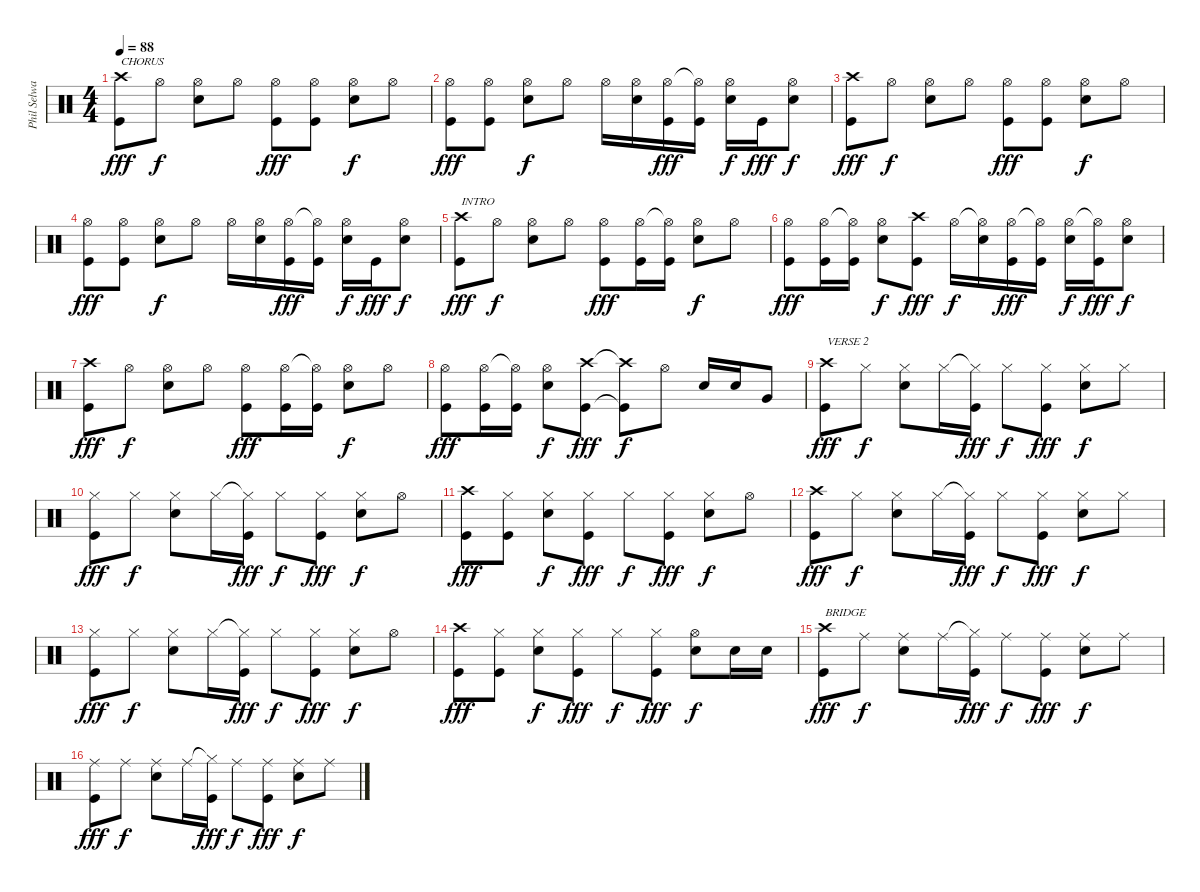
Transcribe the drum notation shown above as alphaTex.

\track ("Phil Selway" "Phil Selwa") {instrument percussion}
\staff {score}
\articulation defaults
\ts (4 4)
\tempo 88
\clef neutral
\ks c
("Crash high (hit)" "Kick (hit)").8{txt "CHORUS" dy fff} "Hi-Hat (open)".8{dy f} ("Hi-Hat (open)" "Snare (hit) 2").8 "Hi-Hat (open)".8 ("Hi-Hat (open)" "Kick (hit)").8{dy fff} ("Hi-Hat (open)" "Kick (hit)").8 ("Hi-Hat (open)" "Snare (hit) 2").8{dy f} "Hi-Hat (open)".8 |
("Hi-Hat (open)" "Kick (hit)").8{dy fff} ("Hi-Hat (open)" "Kick (hit)").8 ("Hi-Hat (open)" "Snare (hit) 2").8{dy f} "Hi-Hat (open)".8 "Hi-Hat (open)".16 ("Hi-Hat (open)" "Snare (hit) 2").16 ("Hi-Hat (open)" "Kick (hit)").16{dy fff} ("Hi-Hat (open)"{t} "Kick (hit)").16 ("Hi-Hat (open)" "Snare (hit) 2").16{dy f} "Kick (hit)".16{dy fff} ("Hi-Hat (open)" "Snare (hit) 2").8{dy f} |
("Crash high (hit)" "Kick (hit)").8{dy fff} "Hi-Hat (open)".8{dy f} ("Hi-Hat (open)" "Snare (hit) 2").8 "Hi-Hat (open)".8 ("Hi-Hat (open)" "Kick (hit)").8{dy fff} ("Hi-Hat (open)" "Kick (hit)").8 ("Hi-Hat (open)" "Snare (hit) 2").8{dy f} "Hi-Hat (open)".8 |
("Hi-Hat (open)" "Kick (hit)").8{dy fff} ("Hi-Hat (open)" "Kick (hit)").8 ("Hi-Hat (open)" "Snare (hit) 2").8{dy f} "Hi-Hat (open)".8 "Hi-Hat (open)".16 ("Hi-Hat (open)" "Snare (hit) 2").16 ("Hi-Hat (open)" "Kick (hit)").16{dy fff} ("Hi-Hat (open)"{t} "Kick (hit)").16 ("Hi-Hat (open)" "Snare (hit) 2").16{dy f} "Kick (hit)".16{dy fff} ("Hi-Hat (open)" "Snare (hit) 2").8{dy f} |
("Crash high (hit)" "Kick (hit)").8{txt "INTRO" dy fff} "Hi-Hat (open)".8{dy f} ("Hi-Hat (open)" "Snare (hit) 2").8 "Hi-Hat (open)".8 ("Hi-Hat (open)" "Kick (hit)").8{dy fff} ("Hi-Hat (open)" "Kick (hit)").16 ("Hi-Hat (open)"{t} "Kick (hit)").16 ("Hi-Hat (open)" "Snare (hit) 2").8{dy f} "Hi-Hat (open)".8 |
("Hi-Hat (open)" "Kick (hit)").8{dy fff} ("Hi-Hat (open)" "Kick (hit)").16 ("Hi-Hat (open)"{t} "Kick (hit)").16 ("Hi-Hat (open)" "Snare (hit) 2").8{dy f} ("Crash high (hit)" "Kick (hit)").8{dy fff} "Hi-Hat (open)".16{dy f} ("Hi-Hat (open)"{t} "Snare (hit) 2").16 ("Hi-Hat (open)" "Kick (hit)").16{dy fff} ("Hi-Hat (open)"{t} "Kick (hit)").16 ("Hi-Hat (open)" "Snare (hit) 2").16{dy f} ("Hi-Hat (open)"{t} "Kick (hit)").16{dy fff} ("Hi-Hat (open)" "Snare (hit) 2").8{dy f} |
("Crash high (hit)" "Kick (hit)").8{dy fff} "Hi-Hat (open)".8{dy f} ("Hi-Hat (open)" "Snare (hit) 2").8 "Hi-Hat (open)".8 ("Hi-Hat (open)" "Kick (hit)").8{dy fff} ("Hi-Hat (open)" "Kick (hit)").16 ("Hi-Hat (open)"{t} "Kick (hit)").16 ("Hi-Hat (open)" "Snare (hit) 2").8{dy f} "Hi-Hat (open)".8 |
("Hi-Hat (open)" "Kick (hit)").8{dy fff} ("Hi-Hat (open)" "Kick (hit)").16 ("Hi-Hat (open)"{t} "Kick (hit)").16 ("Hi-Hat (open)" "Snare (hit) 2").8{dy f} ("Crash high (hit)" "Kick (hit)").8{dy fff} ("Crash high (hit)"{t} "Kick (hit)"{t}).8{dy f} "Hi-Hat (open)".8 "Snare (hit) 2".16 "Snare (hit) 2".16 "Very Low Tom (hit)".8 |
("Crash high (hit)" "Kick (hit)").8{txt "VERSE 2" dy fff} "Hi-Hat (closed)".8{dy f} ("Hi-Hat (closed)" "Snare (hit) 2").8 "Hi-Hat (closed)".16 ("Hi-Hat (closed)"{t} "Kick (hit)").16{dy fff} "Hi-Hat (closed)".8{dy f} ("Hi-Hat (closed)" "Kick (hit)").8{dy fff} ("Hi-Hat (closed)" "Snare (hit) 2").8{dy f} "Hi-Hat (closed)".8 |
("Hi-Hat (closed)" "Kick (hit)").8{dy fff} "Hi-Hat (closed)".8{dy f} ("Hi-Hat (closed)" "Snare (hit) 2").8 "Hi-Hat (closed)".16 ("Hi-Hat (closed)"{t} "Kick (hit)").16{dy fff} "Hi-Hat (closed)".8{dy f} ("Hi-Hat (closed)" "Kick (hit)").8{dy fff} ("Hi-Hat (closed)" "Snare (hit) 2").8{dy f} "Hi-Hat (open)".8 |
("Crash high (hit)" "Kick (hit)").8{dy fff} ("Hi-Hat (closed)" "Kick (hit)").8 ("Hi-Hat (closed)" "Snare (hit) 2").8{dy f} ("Hi-Hat (closed)" "Kick (hit)").8{dy fff} "Hi-Hat (closed)".8{dy f} ("Hi-Hat (closed)" "Kick (hit)").8{dy fff} ("Hi-Hat (closed)" "Snare (hit) 2").8{dy f} "Hi-Hat (open)".8 |
("Crash high (hit)" "Kick (hit)").8{dy fff} "Hi-Hat (closed)".8{dy f} ("Hi-Hat (closed)" "Snare (hit) 2").8 "Hi-Hat (closed)".16 ("Hi-Hat (closed)"{t} "Kick (hit)").16{dy fff} "Hi-Hat (closed)".8{dy f} ("Hi-Hat (closed)" "Kick (hit)").8{dy fff} ("Hi-Hat (closed)" "Snare (hit) 2").8{dy f} "Hi-Hat (closed)".8 |
("Hi-Hat (closed)" "Kick (hit)").8{dy fff} "Hi-Hat (closed)".8{dy f} ("Hi-Hat (closed)" "Snare (hit) 2").8 "Hi-Hat (closed)".16 ("Hi-Hat (closed)"{t} "Kick (hit)").16{dy fff} "Hi-Hat (closed)".8{dy f} ("Hi-Hat (closed)" "Kick (hit)").8{dy fff} ("Hi-Hat (closed)" "Snare (hit) 2").8{dy f} "Hi-Hat (open)".8 |
("Crash high (hit)" "Kick (hit)").8{dy fff} ("Hi-Hat (closed)" "Kick (hit)").8 ("Hi-Hat (closed)" "Snare (hit) 2").8{dy f} ("Hi-Hat (closed)" "Kick (hit)").8{dy fff} "Hi-Hat (closed)".8{dy f} ("Hi-Hat (closed)" "Kick (hit)").8{dy fff} ("Hi-Hat (open)" "Snare (hit) 2").8{dy f} "Snare (hit) 2".16 "Snare (hit) 2".16 |
("Crash high (hit)" "Kick (hit)").8{txt "BRIDGE" dy fff} "Ride (middle)".8{dy f} ("Ride (middle)" "Snare (hit) 2").8 "Ride (middle)".16 ("Hi-Hat (closed)"{t} "Kick (hit)").16{dy fff} "Ride (middle)".8{dy f} ("Ride (middle)" "Kick (hit)").8{dy fff} ("Ride (middle)" "Snare (hit) 2").8{dy f} "Ride (middle)".8 |
("Ride (middle)" "Kick (hit)").8{dy fff} "Ride (middle)".8{dy f} ("Ride (middle)" "Snare (hit) 2").8 "Ride (middle)".16 ("Hi-Hat (closed)"{t} "Kick (hit)").16{dy fff} "Ride (middle)".8{dy f} ("Ride (middle)" "Kick (hit)").8{dy fff} ("Ride (middle)" "Snare (hit) 2").8{dy f} "Ride (middle)".8
